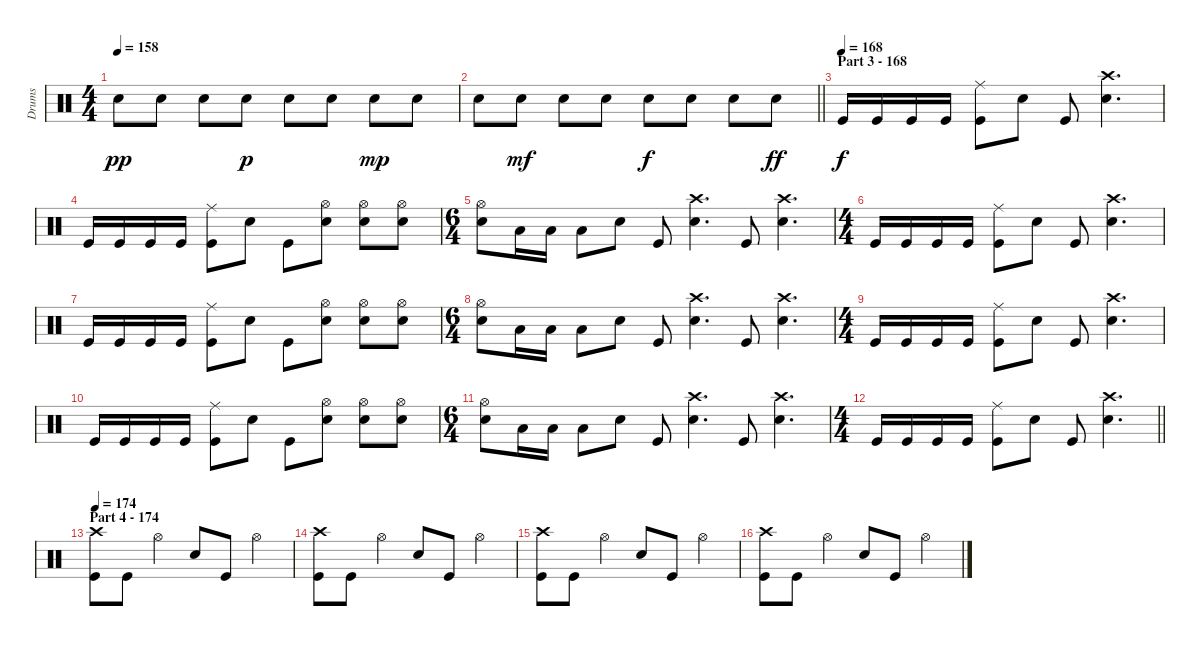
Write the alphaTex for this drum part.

\track ("Drums" "Drums") {instrument percussion}
\staff {score}
\articulation defaults
\ts (4 4)
\tempo 158
\clef neutral
\ks c "Snare (hit) 2".8{dy pp} "Snare (hit) 2".8 "Snare (hit) 2".8 "Snare (hit) 2".8{dy p} "Snare (hit) 2".8 "Snare (hit) 2".8 "Snare (hit) 2".8{dy mp} "Snare (hit) 2".8
|
\barLineRight lightlight "Snare (hit) 2".8 "Snare (hit) 2".8{dy mf} "Snare (hit) 2".8 "Snare (hit) 2".8 "Snare (hit) 2".8{dy f} "Snare (hit) 2".8 "Snare (hit) 2".8 "Snare (hit) 2".8{dy ff}
|
\section ("" "Part 3 - 168")
\tempo (168)
"Kick (hit)".16{dy f} "Kick (hit)".16 "Kick (hit)".16 "Kick (hit)".16 ("Ride (middle)" "Kick (hit)").8 "Snare (hit) 2".8 "Kick (hit)".8 ("Crash high (hit)" "Snare (hit) 2").4{d} |
"Kick (hit)".16 "Kick (hit)".16 "Kick (hit)".16 "Kick (hit)".16 ("Ride (middle)" "Kick (hit)").8 "Snare (hit) 2".8 "Kick (hit)".8 ("Hi-Hat (open)" "Snare (hit) 2").8 ("Hi-Hat (open)" "Snare (hit) 2").8 ("Hi-Hat (open)" "Snare (hit) 2").8 |
\ts (6 4)
("Hi-Hat (open)" "Snare (hit) 2").8 "Low Floor Tom (hit)".16 "Low Floor Tom (hit)".16 "Low Floor Tom (hit)".8 "Snare (hit) 2".8 "Kick (hit)".8 ("Crash high (hit)" "Snare (hit) 2").4{d} "Kick (hit)".8 ("Crash high (hit)" "Snare (hit) 2").4{d} |
\ts (4 4)
"Kick (hit)".16 "Kick (hit)".16 "Kick (hit)".16 "Kick (hit)".16 ("Ride (middle)" "Kick (hit)").8 "Snare (hit) 2".8 "Kick (hit)".8 ("Crash high (hit)" "Snare (hit) 2").4{d} |
"Kick (hit)".16 "Kick (hit)".16 "Kick (hit)".16 "Kick (hit)".16 ("Ride (middle)" "Kick (hit)").8 "Snare (hit) 2".8 "Kick (hit)".8 ("Hi-Hat (open)" "Snare (hit) 2").8 ("Hi-Hat (open)" "Snare (hit) 2").8 ("Hi-Hat (open)" "Snare (hit) 2").8 |
\ts (6 4)
("Hi-Hat (open)" "Snare (hit) 2").8 "Low Floor Tom (hit)".16 "Low Floor Tom (hit)".16 "Low Floor Tom (hit)".8 "Snare (hit) 2".8 "Kick (hit)".8 ("Crash high (hit)" "Snare (hit) 2").4{d} "Kick (hit)".8 ("Crash high (hit)" "Snare (hit) 2").4{d} |
\ts (4 4)
"Kick (hit)".16 "Kick (hit)".16 "Kick (hit)".16 "Kick (hit)".16 ("Ride (middle)" "Kick (hit)").8 "Snare (hit) 2".8 "Kick (hit)".8 ("Crash high (hit)" "Snare (hit) 2").4{d} |
"Kick (hit)".16 "Kick (hit)".16 "Kick (hit)".16 "Kick (hit)".16 ("Ride (middle)" "Kick (hit)").8 "Snare (hit) 2".8 "Kick (hit)".8 ("Hi-Hat (open)" "Snare (hit) 2").8 ("Hi-Hat (open)" "Snare (hit) 2").8 ("Hi-Hat (open)" "Snare (hit) 2").8 |
\ts (6 4)
("Hi-Hat (open)" "Snare (hit) 2").8 "Low Floor Tom (hit)".16 "Low Floor Tom (hit)".16 "Low Floor Tom (hit)".8 "Snare (hit) 2".8 "Kick (hit)".8 ("Crash high (hit)" "Snare (hit) 2").4{d} "Kick (hit)".8 ("Crash high (hit)" "Snare (hit) 2").4{d} |
\ts (4 4)
\barLineRight lightlight "Kick (hit)".16 "Kick (hit)".16 "Kick (hit)".16 "Kick (hit)".16
("Ride (middle)" "Kick (hit)").8 "Snare (hit) 2".8 "Kick (hit)".8 ("Crash high (hit)" "Snare (hit) 2").4{d} |
\section ("" "Part 4 - 174")
\tempo 174
("Crash high (hit)" "Kick (hit)").8 "Kick (hit)".8 "Hi-Hat (open)".4 "Snare (hit) 2".8 "Kick (hit)".8 "Hi-Hat (open)".4 |
("Crash high (hit)" "Kick (hit)").8 "Kick (hit)".8 "Hi-Hat (open)".4 "Snare (hit) 2".8 "Kick (hit)".8 "Hi-Hat (open)".4 |
("Crash high (hit)" "Kick (hit)").8 "Kick (hit)".8 "Hi-Hat (open)".4 "Snare (hit) 2".8 "Kick (hit)".8 "Hi-Hat (open)".4 |
("Crash high (hit)" "Kick (hit)").8 "Kick (hit)".8 "Hi-Hat (open)".4 "Snare (hit) 2".8 "Kick (hit)".8 "Hi-Hat (open)".4
